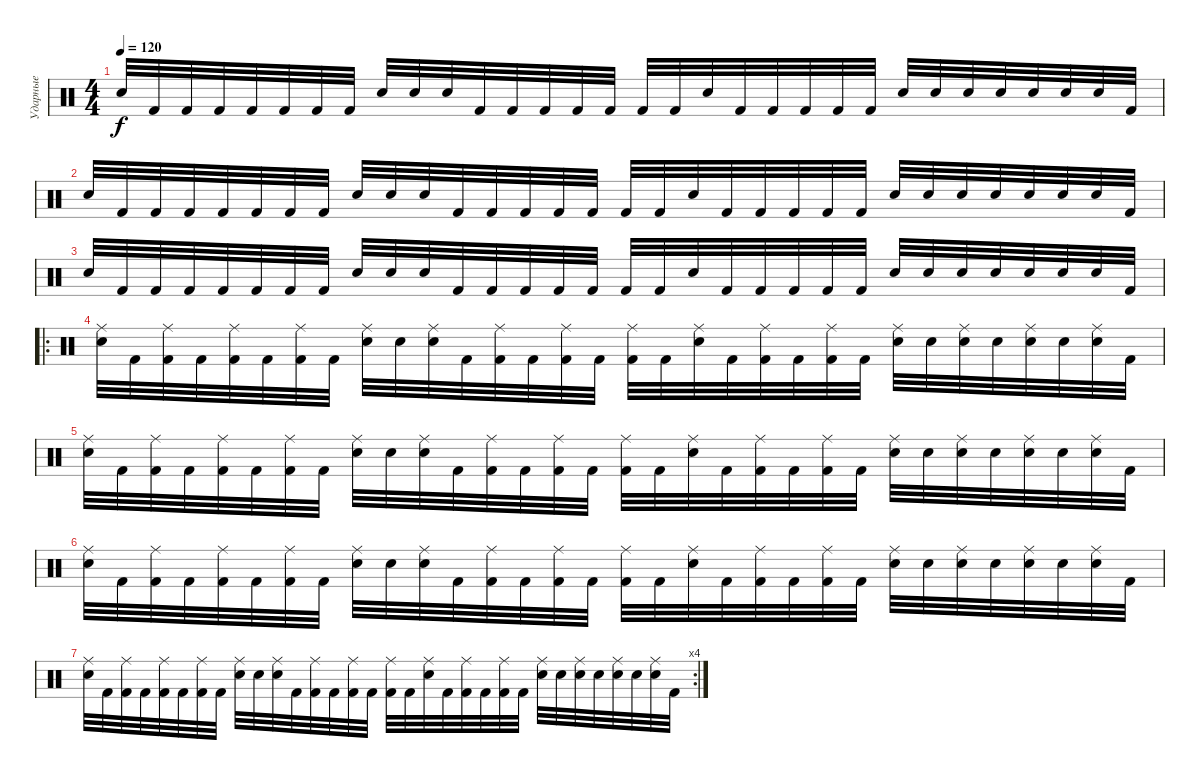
\track ("Ударные" "Ударные") {instrument percussion}
\staff {score}
\articulation defaults
\ts (4 4)
\tempo 120
\clef neutral
\ks c "Snare (hit) 2".32{dy f} "Kick (hit) 2".32 "Kick (hit) 2".32 "Kick (hit) 2".32 "Kick (hit) 2".32 "Kick (hit) 2".32 "Kick (hit) 2".32 "Kick (hit) 2".32 "Snare (hit) 2".32 "Snare (hit) 2".32 "Snare (hit) 2".32 "Kick (hit) 2".32 "Kick (hit) 2".32 "Kick (hit) 2".32 "Kick (hit) 2".32 "Kick (hit) 2".32 "Kick (hit) 2".32 "Kick (hit) 2".32 "Snare (hit) 2".32 "Kick (hit) 2".32 "Kick (hit) 2".32 "Kick (hit) 2".32 "Kick (hit) 2".32 "Kick (hit) 2".32 "Snare (hit) 2".32 "Snare (hit) 2".32 "Snare (hit) 2".32 "Snare (hit) 2".32 "Snare (hit) 2".32 "Snare (hit) 2".32 "Snare (hit) 2".32 "Kick (hit) 2".32
|
"Snare (hit) 2".32 "Kick (hit) 2".32 "Kick (hit) 2".32 "Kick (hit) 2".32 "Kick (hit) 2".32 "Kick (hit) 2".32 "Kick (hit) 2".32 "Kick (hit) 2".32 "Snare (hit) 2".32 "Snare (hit) 2".32 "Snare (hit) 2".32 "Kick (hit) 2".32 "Kick (hit) 2".32 "Kick (hit) 2".32 "Kick (hit) 2".32 "Kick (hit) 2".32 "Kick (hit) 2".32 "Kick (hit) 2".32 "Snare (hit) 2".32 "Kick (hit) 2".32 "Kick (hit) 2".32 "Kick (hit) 2".32 "Kick (hit) 2".32 "Kick (hit) 2".32 "Snare (hit) 2".32 "Snare (hit) 2".32 "Snare (hit) 2".32 "Snare (hit) 2".32 "Snare (hit) 2".32 "Snare (hit) 2".32 "Snare (hit) 2".32 "Kick (hit) 2".32 |
"Snare (hit) 2".32 "Kick (hit) 2".32 "Kick (hit) 2".32 "Kick (hit) 2".32 "Kick (hit) 2".32 "Kick (hit) 2".32 "Kick (hit) 2".32 "Kick (hit) 2".32 "Snare (hit) 2".32 "Snare (hit) 2".32 "Snare (hit) 2".32 "Kick (hit) 2".32 "Kick (hit) 2".32 "Kick (hit) 2".32 "Kick (hit) 2".32 "Kick (hit) 2".32 "Kick (hit) 2".32 "Kick (hit) 2".32 "Snare (hit) 2".32 "Kick (hit) 2".32 "Kick (hit) 2".32 "Kick (hit) 2".32 "Kick (hit) 2".32 "Kick (hit) 2".32 "Snare (hit) 2".32 "Snare (hit) 2".32 "Snare (hit) 2".32 "Snare (hit) 2".32 "Snare (hit) 2".32 "Snare (hit) 2".32 "Snare (hit) 2".32 "Kick (hit) 2".32 |
\ro
("Ride (middle)" "Snare (hit) 2").32 "Kick (hit) 2".32 ("Ride (middle)" "Kick (hit) 2").32 "Kick (hit) 2".32 ("Ride (middle)" "Kick (hit) 2").32 "Kick (hit) 2".32 ("Ride (middle)" "Kick (hit) 2").32 "Kick (hit) 2".32 ("Ride (middle)" "Snare (hit) 2").32 "Snare (hit) 2".32 ("Ride (middle)" "Snare (hit) 2").32 "Kick (hit) 2".32 ("Ride (middle)" "Kick (hit) 2").32 "Kick (hit) 2".32 ("Ride (middle)" "Kick (hit) 2").32 "Kick (hit) 2".32 ("Ride (middle)" "Kick (hit) 2").32 "Kick (hit) 2".32 ("Ride (middle)" "Snare (hit) 2").32 "Kick (hit) 2".32 ("Ride (middle)" "Kick (hit) 2").32 "Kick (hit) 2".32 ("Ride (middle)" "Kick (hit) 2").32 "Kick (hit) 2".32 ("Ride (middle)" "Snare (hit) 2").32 "Snare (hit) 2".32 ("Ride (middle)" "Snare (hit) 2").32 "Snare (hit) 2".32 ("Ride (middle)" "Snare (hit) 2").32 "Snare (hit) 2".32 ("Ride (middle)" "Snare (hit) 2").32 "Kick (hit) 2".32 |
("Ride (middle)" "Snare (hit) 2").32 "Kick (hit) 2".32 ("Ride (middle)" "Kick (hit) 2").32 "Kick (hit) 2".32 ("Ride (middle)" "Kick (hit) 2").32 "Kick (hit) 2".32 ("Ride (middle)" "Kick (hit) 2").32 "Kick (hit) 2".32 ("Ride (middle)" "Snare (hit) 2").32 "Snare (hit) 2".32 ("Ride (middle)" "Snare (hit) 2").32 "Kick (hit) 2".32 ("Ride (middle)" "Kick (hit) 2").32 "Kick (hit) 2".32 ("Ride (middle)" "Kick (hit) 2").32 "Kick (hit) 2".32 ("Ride (middle)" "Kick (hit) 2").32 "Kick (hit) 2".32 ("Ride (middle)" "Snare (hit) 2").32 "Kick (hit) 2".32 ("Ride (middle)" "Kick (hit) 2").32 "Kick (hit) 2".32 ("Ride (middle)" "Kick (hit) 2").32 "Kick (hit) 2".32 ("Ride (middle)" "Snare (hit) 2").32 "Snare (hit) 2".32 ("Ride (middle)" "Snare (hit) 2").32 "Snare (hit) 2".32 ("Ride (middle)" "Snare (hit) 2").32 "Snare (hit) 2".32 ("Ride (middle)" "Snare (hit) 2").32 "Kick (hit) 2".32 |
("Ride (middle)" "Snare (hit) 2").32 "Kick (hit) 2".32 ("Ride (middle)" "Kick (hit) 2").32 "Kick (hit) 2".32 ("Ride (middle)" "Kick (hit) 2").32 "Kick (hit) 2".32 ("Ride (middle)" "Kick (hit) 2").32 "Kick (hit) 2".32 ("Ride (middle)" "Snare (hit) 2").32 "Snare (hit) 2".32 ("Ride (middle)" "Snare (hit) 2").32 "Kick (hit) 2".32 ("Ride (middle)" "Kick (hit) 2").32 "Kick (hit) 2".32 ("Ride (middle)" "Kick (hit) 2").32 "Kick (hit) 2".32 ("Ride (middle)" "Kick (hit) 2").32 "Kick (hit) 2".32 ("Ride (middle)" "Snare (hit) 2").32 "Kick (hit) 2".32 ("Ride (middle)" "Kick (hit) 2").32 "Kick (hit) 2".32 ("Ride (middle)" "Kick (hit) 2").32 "Kick (hit) 2".32 ("Ride (middle)" "Snare (hit) 2").32 "Snare (hit) 2".32 ("Ride (middle)" "Snare (hit) 2").32 "Snare (hit) 2".32 ("Ride (middle)" "Snare (hit) 2").32 "Snare (hit) 2".32 ("Ride (middle)" "Snare (hit) 2").32 "Kick (hit) 2".32 |
\rc 4
("Ride (middle)" "Snare (hit) 2").32 "Kick (hit) 2".32 ("Ride (middle)" "Kick (hit) 2").32 "Kick (hit) 2".32 ("Ride (middle)" "Kick (hit) 2").32 "Kick (hit) 2".32 ("Ride (middle)" "Kick (hit) 2").32 "Kick (hit) 2".32 ("Ride (middle)" "Snare (hit) 2").32 "Snare (hit) 2".32 ("Ride (middle)" "Snare (hit) 2").32 "Kick (hit) 2".32 ("Ride (middle)" "Kick (hit) 2").32 "Kick (hit) 2".32 ("Ride (middle)" "Kick (hit) 2").32 "Kick (hit) 2".32 ("Ride (middle)" "Kick (hit) 2").32 "Kick (hit) 2".32 ("Ride (middle)" "Snare (hit) 2").32 "Kick (hit) 2".32 ("Ride (middle)" "Kick (hit) 2").32 "Kick (hit) 2".32 ("Ride (middle)" "Kick (hit) 2").32 "Kick (hit) 2".32 ("Ride (middle)" "Snare (hit) 2").32 "Snare (hit) 2".32 ("Ride (middle)" "Snare (hit) 2").32 "Snare (hit) 2".32 ("Ride (middle)" "Snare (hit) 2").32 "Snare (hit) 2".32 ("Ride (middle)" "Snare (hit) 2").32 "Kick (hit) 2".32
